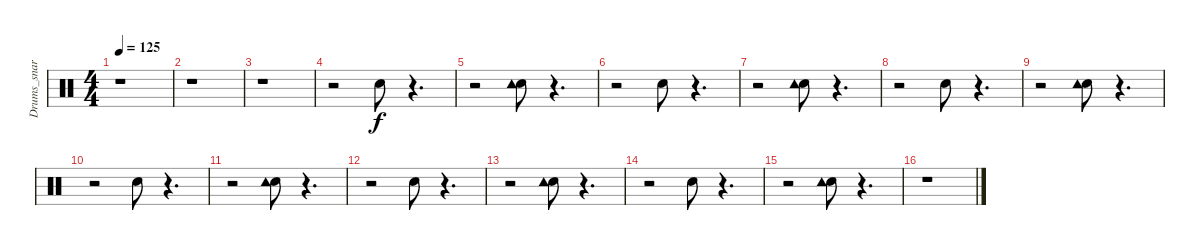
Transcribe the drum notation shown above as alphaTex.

\track ("Drums_snare&tom" "Drums_snar") {instrument percussion}
\staff {score}
\articulation defaults
\ts (4 4)
\tempo 125
\clef neutral
\ks c
r.1{dy f} |
r.1 |
r.1 |
r.2 "Electric Snare (hit)".8 r.4{d} |
r.2 ("Electric Snare (hit)" "Tambourine (hit)").8 r.4{d} |
r.2 "Electric Snare (hit)".8 r.4{d} |
r.2 ("Electric Snare (hit)" "Tambourine (hit)").8 r.4{d} |
r.2 "Electric Snare (hit)".8 r.4{d} |
r.2 ("Electric Snare (hit)" "Tambourine (hit)").8 r.4{d} |
r.2 "Electric Snare (hit)".8 r.4{d} |
r.2 ("Electric Snare (hit)" "Tambourine (hit)").8 r.4{d} |
r.2 "Electric Snare (hit)".8 r.4{d} |
r.2 ("Electric Snare (hit)" "Tambourine (hit)").8 r.4{d} |
r.2 "Electric Snare (hit)".8 r.4{d} |
r.2 ("Electric Snare (hit)" "Tambourine (hit)").8 r.4{d} |
r.1
